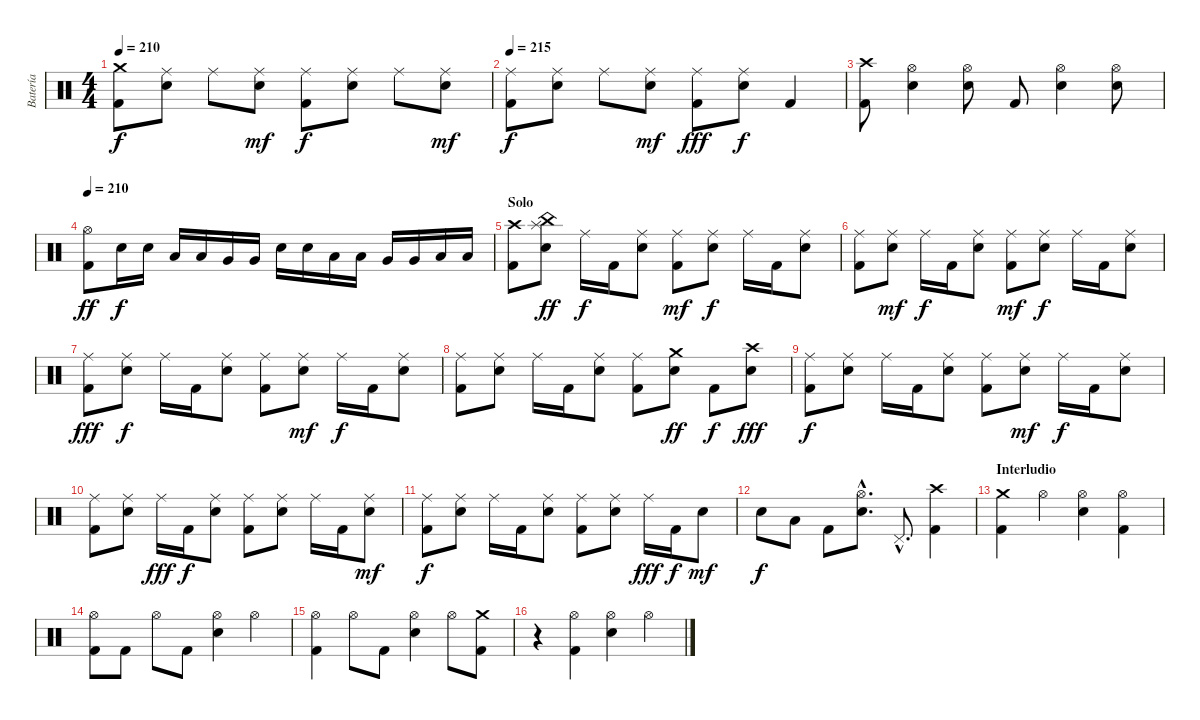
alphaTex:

\track ("Batería" "Batería") {instrument percussion}
\staff {score}
\articulation defaults
\ts (4 4)
\tempo 210
\clef neutral
\ks c
("Crash medium (hit)" "Kick (hit) 2").8{dy f} ("Ride (middle)" "Electric Snare (hit)").8 "Ride (middle)".8 ("Ride (middle)" "Electric Snare (hit)").8{dy mf} ("Ride (middle)" "Kick (hit) 2").8{dy f} ("Ride (middle)" "Electric Snare (hit)").8 "Ride (middle)".8 ("Ride (middle)" "Electric Snare (hit)").8{dy mf} |
\tempo 215
("Ride (middle)" "Kick (hit) 2").8{dy f} ("Ride (middle)" "Electric Snare (hit)").8 "Ride (middle)".8 ("Ride (middle)" "Electric Snare (hit)").8{dy mf} ("Ride (middle)" "Kick (hit) 2").8{dy fff} ("Ride (middle)" "Electric Snare (hit)").8{dy f} "Kick (hit) 2".4 |
("Crash high (hit)" "Kick (hit) 2").8 ("Hi-Hat (open)" "Electric Snare (hit)").4 ("Hi-Hat (open)" "Electric Snare (hit)").8 "Kick (hit) 2".8 ("Hi-Hat (open)" "Electric Snare (hit)").4 ("Hi-Hat (open)" "Electric Snare (hit)").8 |
\tempo 210
("Hi-Hat (open)" "Kick (hit) 2").8{dy ff} "Electric Snare (hit)".16{dy f} "Electric Snare (hit)".16 "Low Tom (hit)".16 "Low Tom (hit)".16 "Very Low Tom (hit)".16 "Very Low Tom (hit)".16 "Electric Snare (hit)".16 "Electric Snare (hit)".16 "Low Tom (hit)".16 "Low Tom (hit)".16 "Very Low Tom (hit)".16 "Very Low Tom (hit)".16 "Low Floor Tom (hit)".16 "Low Floor Tom (hit)".16 |
\section ("" "Solo")
("Crash high (hit)" "Kick (hit) 2").8 ("China (hit)" "Electric Snare (hit)" "Splash (hit)").8{dy ff} "Ride (middle)".16{dy f} "Kick (hit) 2".16 ("Ride (middle)" "Electric Snare (hit)").8 ("Ride (middle)" "Kick (hit) 2").8{dy mf} ("Ride (middle)" "Electric Snare (hit)").8{dy f} "Ride (middle)".16 "Kick (hit) 2".16 ("Ride (middle)" "Electric Snare (hit)").8 |
("Ride (middle)" "Kick (hit) 2").8 ("Ride (middle)" "Electric Snare (hit)").8{dy mf} "Ride (middle)".16{dy f} "Kick (hit) 2".16 ("Ride (middle)" "Electric Snare (hit)").8 ("Ride (middle)" "Kick (hit) 2").8{dy mf} ("Ride (middle)" "Electric Snare (hit)").8{dy f} "Ride (middle)".16 "Kick (hit) 2".16 ("Ride (middle)" "Electric Snare (hit)").8 |
("Ride (middle)" "Kick (hit) 2").8{dy fff} ("Ride (middle)" "Electric Snare (hit)").8{dy f} "Ride (middle)".16 "Kick (hit) 2".16 ("Ride (middle)" "Electric Snare (hit)").8 ("Ride (middle)" "Kick (hit) 2").8 ("Ride (middle)" "Electric Snare (hit)").8{dy mf} "Ride (middle)".16{dy f} "Kick (hit) 2".16 ("Ride (middle)" "Electric Snare (hit)").8 |
("Ride (middle)" "Kick (hit) 2").8 ("Ride (middle)" "Electric Snare (hit)").8 "Ride (middle)".16 "Kick (hit) 2".16 ("Ride (middle)" "Electric Snare (hit)").8 ("Ride (middle)" "Kick (hit) 2").8 ("Crash medium (hit)" "Electric Snare (hit)").8{dy ff} "Kick (hit) 2".8{dy f} ("Crash high (hit)" "Electric Snare (hit)").8{dy fff} |
("Ride (middle)" "Kick (hit) 2").8{dy f} ("Ride (middle)" "Electric Snare (hit)").8 "Ride (middle)".16 "Kick (hit) 2".16 ("Ride (middle)" "Electric Snare (hit)").8 ("Ride (middle)" "Kick (hit) 2").8 ("Ride (middle)" "Electric Snare (hit)").8{dy mf} "Ride (middle)".16{dy f} "Kick (hit) 2".16 ("Ride (middle)" "Electric Snare (hit)").8 |
("Ride (middle)" "Kick (hit) 2").8 ("Ride (middle)" "Electric Snare (hit)").8 "Ride (middle)".16{dy fff} "Kick (hit) 2".16{dy f} ("Ride (middle)" "Electric Snare (hit)").8 ("Ride (middle)" "Kick (hit) 2").8 ("Ride (middle)" "Electric Snare (hit)").8 "Ride (middle)".16 "Kick (hit) 2".16 ("Ride (middle)" "Electric Snare (hit)").8{dy mf} |
("Ride (middle)" "Kick (hit) 2").8{dy f} ("Ride (middle)" "Electric Snare (hit)").8 "Ride (middle)".16 "Kick (hit) 2".16 ("Ride (middle)" "Electric Snare (hit)").8 ("Ride (middle)" "Kick (hit) 2").8 ("Ride (middle)" "Electric Snare (hit)").8 "Ride (middle)".16{dy fff} "Kick (hit) 2".16{dy f} "Electric Snare (hit)".8{dy mf} |
"Electric Snare (hit)".8{dy f} "Low Tom (hit)".8 "Kick (hit) 2".8 ("Hi-Hat (open)"{hac} "Electric Snare (hit)"{hac}).8{d} "Pedal Hi-Hat (hit)"{hac}.8{d} ("Crash high (hit)" "Kick (hit) 2").4 |
\section ("" "Interludio")
("Crash medium (hit)" "Kick (hit) 2").4 "Hi-Hat (open)".4 ("Hi-Hat (open)" "Electric Snare (hit)").4 ("Hi-Hat (open)" "Kick (hit) 2").4 |
("Hi-Hat (open)" "Kick (hit) 2").8 "Kick (hit) 2".8 "Hi-Hat (open)".8 "Kick (hit) 2".8 ("Hi-Hat (open)" "Electric Snare (hit)").4 "Hi-Hat (open)".4 |
("Hi-Hat (open)" "Kick (hit) 2").4 "Hi-Hat (open)".8 "Kick (hit) 2".8 ("Hi-Hat (open)" "Electric Snare (hit)").4 "Hi-Hat (open)".8 ("Crash medium (hit)" "Kick (hit) 2").8 |
r.4 ("Hi-Hat (open)" "Kick (hit) 2").4 ("Hi-Hat (open)" "Electric Snare (hit)").4 "Hi-Hat (open)".4
